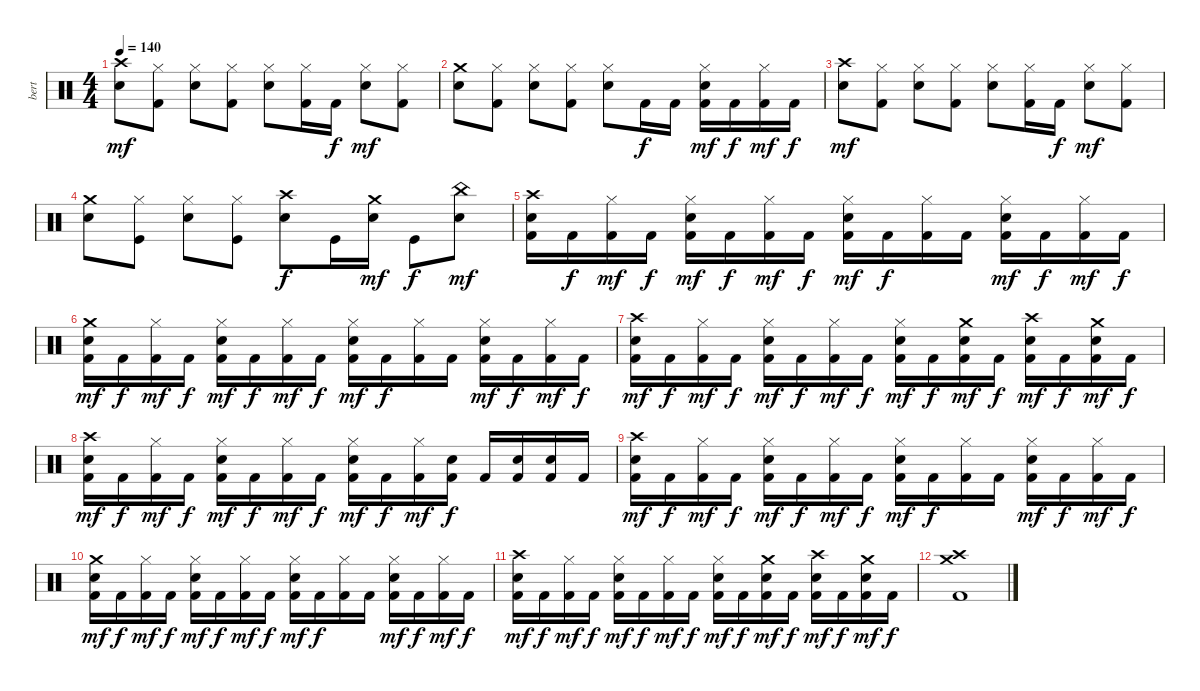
\track ("bert" "bert") {instrument percussion}
\staff {score}
\articulation defaults
\ts (4 4)
\tempo 140
\clef neutral
\ks c
("Crash high (hit)" "Snare (hit) 2").8{dy mf} ("Hi-Hat (closed)" "Kick (hit) 2").8 ("Hi-Hat (closed)" "Snare (hit) 2").8 ("Hi-Hat (closed)" "Kick (hit) 2").8 ("Hi-Hat (closed)" "Snare (hit) 2").8 ("Hi-Hat (closed)" "Kick (hit) 2").16 "Kick (hit) 2".16{dy f} ("Hi-Hat (closed)" "Snare (hit) 2").8{dy mf} ("Hi-Hat (closed)" "Kick (hit) 2").8 |
("Crash medium (hit)" "Snare (hit) 2").8 ("Hi-Hat (closed)" "Kick (hit) 2").8 ("Hi-Hat (closed)" "Snare (hit) 2").8 ("Hi-Hat (closed)" "Kick (hit) 2").8 ("Hi-Hat (closed)" "Snare (hit) 2").8 "Kick (hit) 2".16{dy f} "Kick (hit) 2".16 ("Hi-Hat (closed)" "Snare (hit) 2" "Kick (hit) 2").16{dy mf} "Kick (hit) 2".16{dy f} ("Hi-Hat (closed)" "Kick (hit) 2").16{dy mf} "Kick (hit) 2".16{dy f} |
("Crash high (hit)" "Snare (hit) 2").8{dy mf} ("Hi-Hat (closed)" "Kick (hit) 2").8 ("Hi-Hat (closed)" "Snare (hit) 2").8 ("Hi-Hat (closed)" "Kick (hit) 2").8 ("Hi-Hat (closed)" "Snare (hit) 2").8 ("Hi-Hat (closed)" "Kick (hit) 2").16 "Kick (hit) 2".16{dy f} ("Hi-Hat (closed)" "Snare (hit) 2").8{dy mf} ("Hi-Hat (closed)" "Kick (hit) 2").8 |
("Crash medium (hit)" "Snare (hit) 2").8 ("Hi-Hat (closed)" "Kick (hit)").8 ("Hi-Hat (closed)" "Snare (hit) 2").8 ("Hi-Hat (closed)" "Kick (hit)").8 ("Crash high (hit)" "Snare (hit) 2").8{dy f} "Kick (hit)".16 ("Crash medium (hit)" "Snare (hit) 2").16{dy mf} "Kick (hit)".8{dy f} ("China (hit)" "Snare (hit) 2").8{dy mf} |
("Crash high (hit)" "Snare (hit) 2" "Kick (hit) 2").16 "Kick (hit) 2".16{dy f} ("Hi-Hat (closed)" "Kick (hit) 2").16{dy mf} "Kick (hit) 2".16{dy f} ("Hi-Hat (closed)" "Snare (hit) 2" "Kick (hit) 2").16{dy mf} "Kick (hit) 2".16{dy f} ("Hi-Hat (closed)" "Kick (hit) 2").16{dy mf} "Kick (hit) 2".16{dy f} ("Hi-Hat (closed)" "Snare (hit) 2" "Kick (hit) 2").16{dy mf} "Kick (hit) 2".16{dy f} ("Hi-Hat (closed)" "Kick (hit) 2").16 "Kick (hit) 2".16 ("Hi-Hat (closed)" "Snare (hit) 2" "Kick (hit) 2").16{dy mf} "Kick (hit) 2".16{dy f} ("Hi-Hat (closed)" "Kick (hit) 2").16{dy mf} "Kick (hit) 2".16{dy f} |
("Crash medium (hit)" "Snare (hit) 2" "Kick (hit) 2").16{dy mf} "Kick (hit) 2".16{dy f} ("Hi-Hat (closed)" "Kick (hit) 2").16{dy mf} "Kick (hit) 2".16{dy f} ("Hi-Hat (closed)" "Snare (hit) 2" "Kick (hit) 2").16{dy mf} "Kick (hit) 2".16{dy f} ("Hi-Hat (closed)" "Kick (hit) 2").16{dy mf} "Kick (hit) 2".16{dy f} ("Hi-Hat (closed)" "Snare (hit) 2" "Kick (hit) 2").16{dy mf} "Kick (hit) 2".16{dy f} ("Hi-Hat (closed)" "Kick (hit) 2").16 "Kick (hit) 2".16 ("Hi-Hat (closed)" "Snare (hit) 2" "Kick (hit) 2").16{dy mf} "Kick (hit) 2".16{dy f} ("Hi-Hat (closed)" "Kick (hit) 2").16{dy mf} "Kick (hit) 2".16{dy f} |
("Crash high (hit)" "Snare (hit) 2" "Kick (hit) 2").16{dy mf} "Kick (hit) 2".16{dy f} ("Hi-Hat (closed)" "Kick (hit) 2").16{dy mf} "Kick (hit) 2".16{dy f} ("Hi-Hat (closed)" "Snare (hit) 2" "Kick (hit) 2").16{dy mf} "Kick (hit) 2".16{dy f} ("Hi-Hat (closed)" "Kick (hit) 2").16{dy mf} "Kick (hit) 2".16{dy f} ("Hi-Hat (closed)" "Snare (hit) 2" "Kick (hit) 2").16{dy mf} "Kick (hit) 2".16{dy f} ("Crash medium (hit)" "Snare (hit) 2" "Kick (hit) 2").16{dy mf} "Kick (hit) 2".16{dy f} ("Crash high (hit)" "Snare (hit) 2" "Kick (hit) 2").16{dy mf} "Kick (hit) 2".16{dy f} ("Crash medium (hit)" "Snare (hit) 2" "Kick (hit) 2").16{dy mf} "Kick (hit) 2".16{dy f} |
("Crash high (hit)" "Snare (hit) 2" "Kick (hit) 2").16{dy mf} "Kick (hit) 2".16{dy f} ("Hi-Hat (closed)" "Kick (hit) 2").16{dy mf} "Kick (hit) 2".16{dy f} ("Hi-Hat (closed)" "Snare (hit) 2" "Kick (hit) 2").16{dy mf} "Kick (hit) 2".16{dy f} ("Hi-Hat (closed)" "Kick (hit) 2").16{dy mf} "Kick (hit) 2".16{dy f} ("Hi-Hat (closed)" "Snare (hit) 2" "Kick (hit) 2").16{dy mf} "Kick (hit) 2".16{dy f} ("Hi-Hat (closed)" "Kick (hit) 2").16{dy mf} ("Snare (hit) 2" "Kick (hit) 2").16{dy f} "Kick (hit) 2".16 ("Snare (hit) 2" "Kick (hit) 2").16 ("Snare (hit) 2" "Kick (hit) 2").16 "Kick (hit) 2".16 |
("Crash high (hit)" "Snare (hit) 2" "Kick (hit) 2").16{dy mf} "Kick (hit) 2".16{dy f} ("Hi-Hat (closed)" "Kick (hit) 2").16{dy mf} "Kick (hit) 2".16{dy f} ("Hi-Hat (closed)" "Snare (hit) 2" "Kick (hit) 2").16{dy mf} "Kick (hit) 2".16{dy f} ("Hi-Hat (closed)" "Kick (hit) 2").16{dy mf} "Kick (hit) 2".16{dy f} ("Hi-Hat (closed)" "Snare (hit) 2" "Kick (hit) 2").16{dy mf} "Kick (hit) 2".16{dy f} ("Hi-Hat (closed)" "Kick (hit) 2").16 "Kick (hit) 2".16 ("Hi-Hat (closed)" "Snare (hit) 2" "Kick (hit) 2").16{dy mf} "Kick (hit) 2".16{dy f} ("Hi-Hat (closed)" "Kick (hit) 2").16{dy mf} "Kick (hit) 2".16{dy f} |
("Crash medium (hit)" "Snare (hit) 2" "Kick (hit) 2").16{dy mf} "Kick (hit) 2".16{dy f} ("Hi-Hat (closed)" "Kick (hit) 2").16{dy mf} "Kick (hit) 2".16{dy f} ("Hi-Hat (closed)" "Snare (hit) 2" "Kick (hit) 2").16{dy mf} "Kick (hit) 2".16{dy f} ("Hi-Hat (closed)" "Kick (hit) 2").16{dy mf} "Kick (hit) 2".16{dy f} ("Hi-Hat (closed)" "Snare (hit) 2" "Kick (hit) 2").16{dy mf} "Kick (hit) 2".16{dy f} ("Hi-Hat (closed)" "Kick (hit) 2").16 "Kick (hit) 2".16 ("Hi-Hat (closed)" "Snare (hit) 2" "Kick (hit) 2").16{dy mf} "Kick (hit) 2".16{dy f} ("Hi-Hat (closed)" "Kick (hit) 2").16{dy mf} "Kick (hit) 2".16{dy f} |
("Crash high (hit)" "Snare (hit) 2" "Kick (hit) 2").16{dy mf} "Kick (hit) 2".16{dy f} ("Hi-Hat (closed)" "Kick (hit) 2").16{dy mf} "Kick (hit) 2".16{dy f} ("Hi-Hat (closed)" "Snare (hit) 2" "Kick (hit) 2").16{dy mf} "Kick (hit) 2".16{dy f} ("Hi-Hat (closed)" "Kick (hit) 2").16{dy mf} "Kick (hit) 2".16{dy f} ("Hi-Hat (closed)" "Snare (hit) 2" "Kick (hit) 2").16{dy mf} "Kick (hit) 2".16{dy f} ("Crash medium (hit)" "Snare (hit) 2" "Kick (hit) 2").16{dy mf} "Kick (hit) 2".16{dy f} ("Crash high (hit)" "Snare (hit) 2" "Kick (hit) 2").16{dy mf} "Kick (hit) 2".16{dy f} ("Crash medium (hit)" "Snare (hit) 2" "Kick (hit) 2").16{dy mf} "Kick (hit) 2".16{dy f} |
("Crash medium (hit)" "Crash high (hit)" "Kick (hit) 2").1
